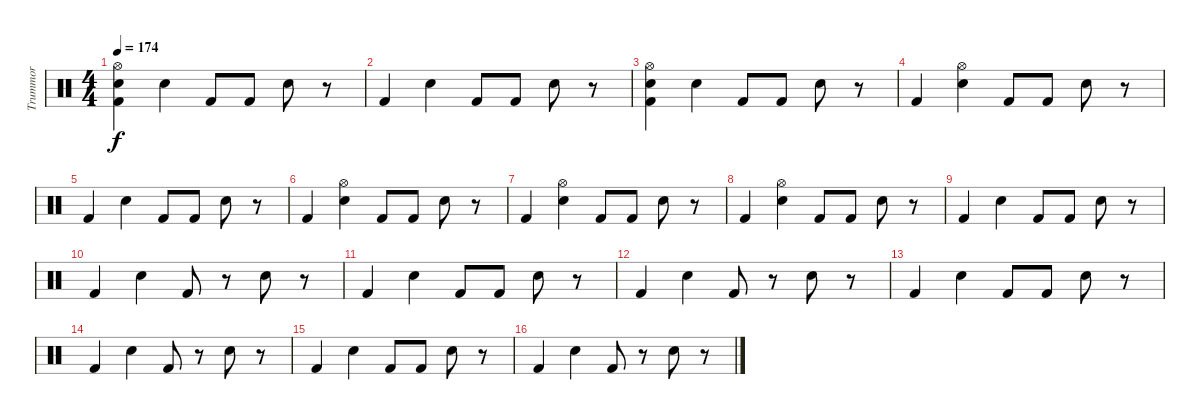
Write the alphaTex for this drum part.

\track ("Trummor" "Trummor") {instrument percussion}
\staff {score}
\articulation defaults
\ts (4 4)
\tempo 174
\clef neutral
\ks c
("Hi-Hat (open)" "Kick (hit) 2" "Snare (hit) 2").4{dy f} "Snare (hit) 2".4 "Kick (hit) 2".8 "Kick (hit) 2".8 "Snare (hit) 2".8 r.8 |
"Kick (hit) 2".4 "Snare (hit) 2".4 "Kick (hit) 2".8 "Kick (hit) 2".8 "Snare (hit) 2".8 r.8 |
("Hi-Hat (open)" "Snare (hit) 2" "Kick (hit) 2").4 "Snare (hit) 2".4 "Kick (hit) 2".8 "Kick (hit) 2".8 "Snare (hit) 2".8 r.8 |
"Kick (hit) 2".4 ("Hi-Hat (open)" "Snare (hit) 2").4 "Kick (hit) 2".8 "Kick (hit) 2".8 "Snare (hit) 2".8 r.8 |
"Kick (hit) 2".4 "Snare (hit) 2".4 "Kick (hit) 2".8 "Kick (hit) 2".8 "Snare (hit) 2".8 r.8 |
"Kick (hit) 2".4 ("Hi-Hat (open)" "Snare (hit) 2").4 "Kick (hit) 2".8 "Kick (hit) 2".8 "Snare (hit) 2".8 r.8 |
"Kick (hit) 2".4 ("Hi-Hat (open)" "Snare (hit) 2").4 "Kick (hit) 2".8 "Kick (hit) 2".8 "Snare (hit) 2".8 r.8 |
"Kick (hit) 2".4 ("Hi-Hat (open)" "Snare (hit) 2").4 "Kick (hit) 2".8 "Kick (hit) 2".8 "Snare (hit) 2".8 r.8 |
"Kick (hit) 2".4 "Snare (hit) 2".4 "Kick (hit) 2".8 "Kick (hit) 2".8 "Snare (hit) 2".8 r.8 |
"Kick (hit) 2".4 "Snare (hit) 2".4 "Kick (hit) 2".8 r.8 "Snare (hit) 2".8 r.8 |
"Kick (hit) 2".4 "Snare (hit) 2".4 "Kick (hit) 2".8 "Kick (hit) 2".8 "Snare (hit) 2".8 r.8 |
"Kick (hit) 2".4 "Snare (hit) 2".4 "Kick (hit) 2".8 r.8 "Snare (hit) 2".8 r.8 |
"Kick (hit) 2".4 "Snare (hit) 2".4 "Kick (hit) 2".8 "Kick (hit) 2".8 "Snare (hit) 2".8 r.8 |
"Kick (hit) 2".4 "Snare (hit) 2".4 "Kick (hit) 2".8 r.8 "Snare (hit) 2".8 r.8 |
"Kick (hit) 2".4 "Snare (hit) 2".4 "Kick (hit) 2".8 "Kick (hit) 2".8 "Snare (hit) 2".8 r.8 |
"Kick (hit) 2".4 "Snare (hit) 2".4 "Kick (hit) 2".8 r.8 "Snare (hit) 2".8 r.8
